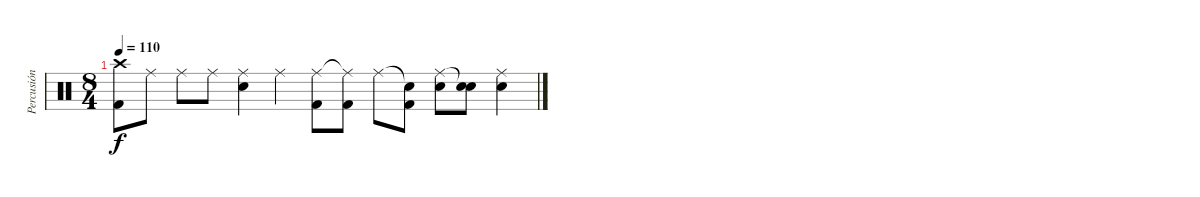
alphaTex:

\track ("Percusión" "Percusión") {instrument percussion}
\staff {score}
\articulation defaults
\ts (8 4)
\tempo 110
\clef neutral
\ks c
("Crash high (hit)" "Kick (hit) 2").8{dy f} "Ride (middle)".8 "Ride (middle)".8 "Ride (middle)".8 ("Ride (middle)" "Electric Snare (hit)").4 "Ride (middle)".4 ("Ride (middle)" "Kick (hit) 2").8 ("Ride (middle)"{t} "Kick (hit) 2").8 "Ride (middle)".8 ("Snare (hit)"{t} "Kick (hit) 2").8 ("Ride (middle)" "Electric Snare (hit)").8 ("Snare (hit)"{t} "Electric Snare (hit)").8 ("Ride (middle)" "Electric Snare (hit)").4
